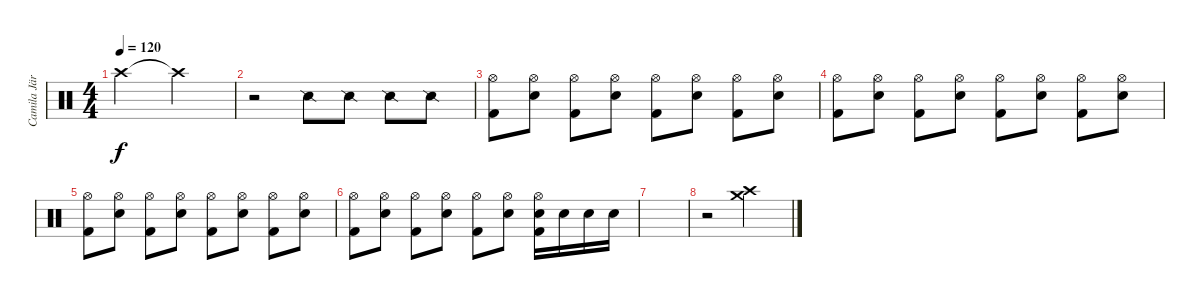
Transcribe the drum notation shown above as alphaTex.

\track ("Camila Jära" "Camila Jär") {instrument percussion}
\staff {score}
\articulation defaults
\ts (4 4)
\tempo 120
\clef neutral
\ks c "Crash high (hit)"{t}.2{dy f} "Crash high (hit)"{t}.2
|
r.2 "Snare (side stick) 2".8 "Snare (side stick) 2".8 "Snare (side stick) 2".8 "Snare (side stick) 2".8 |
("Hi-Hat (open)" "Kick (hit) 2").8 ("Hi-Hat (open)" "Snare (hit) 2").8 ("Hi-Hat (open)" "Kick (hit) 2").8 ("Hi-Hat (open)" "Snare (hit) 2").8 ("Hi-Hat (open)" "Kick (hit) 2").8 ("Hi-Hat (open)" "Snare (hit) 2").8 ("Hi-Hat (open)" "Kick (hit) 2").8 ("Hi-Hat (open)" "Snare (hit) 2").8 |
("Hi-Hat (open)" "Kick (hit) 2").8 ("Hi-Hat (open)" "Snare (hit) 2").8 ("Hi-Hat (open)" "Kick (hit) 2").8 ("Hi-Hat (open)" "Snare (hit) 2").8 ("Hi-Hat (open)" "Kick (hit) 2").8 ("Hi-Hat (open)" "Snare (hit) 2").8 ("Hi-Hat (open)" "Kick (hit) 2").8 ("Hi-Hat (open)" "Snare (hit) 2").8 |
("Hi-Hat (open)" "Kick (hit) 2").8 ("Hi-Hat (open)" "Snare (hit) 2").8 ("Hi-Hat (open)" "Kick (hit) 2").8 ("Hi-Hat (open)" "Snare (hit) 2").8 ("Hi-Hat (open)" "Kick (hit) 2").8 ("Hi-Hat (open)" "Snare (hit) 2").8 ("Hi-Hat (open)" "Kick (hit) 2").8 ("Hi-Hat (open)" "Snare (hit) 2").8 |
("Hi-Hat (open)" "Kick (hit) 2").8 ("Hi-Hat (open)" "Snare (hit) 2").8 ("Hi-Hat (open)" "Kick (hit) 2").8 ("Hi-Hat (open)" "Snare (hit) 2").8 ("Hi-Hat (open)" "Kick (hit) 2").8 ("Hi-Hat (open)" "Snare (hit) 2").8 ("Hi-Hat (open)" "Snare (hit) 2" "Kick (hit) 2").16 "Snare (hit) 2".16 "Snare (hit) 2".16 "Snare (hit) 2".16 |
|
r.2 ("Crash medium (hit)" "Crash high (hit)").2
